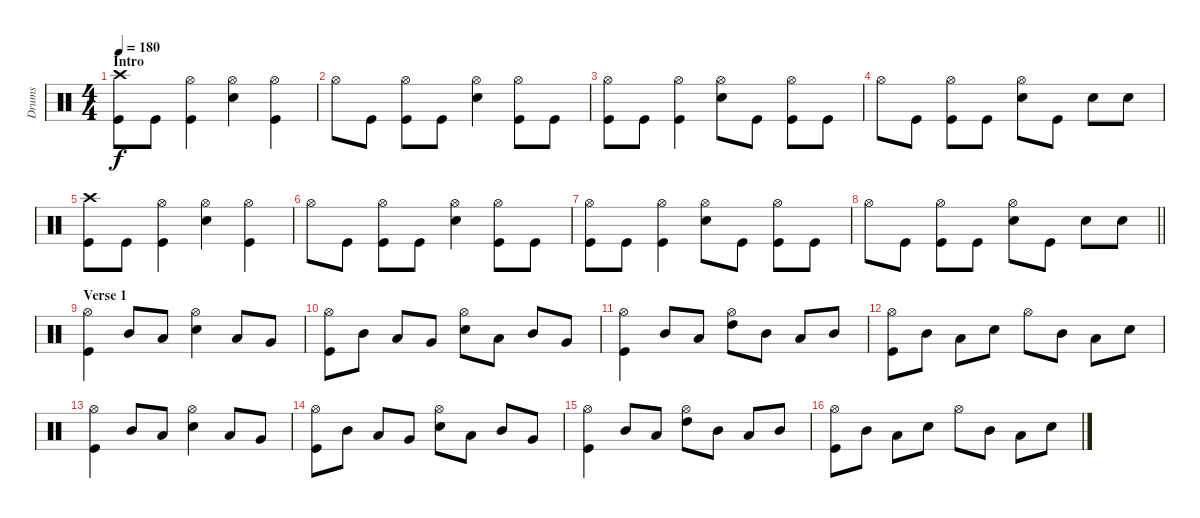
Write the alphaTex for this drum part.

\track ("Drums" "Drums") {instrument percussion}
\staff {score}
\articulation defaults
\ts (4 4)
\section ("" "Intro")
\tempo 180
\clef neutral
\ks c
("Crash high (hit)" "Kick (hit)").8{dy f} "Kick (hit)".8 ("Hi-Hat (open)" "Kick (hit)").4 ("Hi-Hat (open)" "Snare (hit) 2").4 ("Hi-Hat (open)" "Kick (hit)").4 |
"Hi-Hat (open)".8 "Kick (hit)".8 ("Hi-Hat (open)" "Kick (hit)").8 "Kick (hit)".8 ("Hi-Hat (open)" "Snare (hit) 2").4 ("Hi-Hat (open)" "Kick (hit)").8 "Kick (hit)".8 |
("Hi-Hat (open)" "Kick (hit)").8 "Kick (hit)".8 ("Hi-Hat (open)" "Kick (hit)").4 ("Hi-Hat (open)" "Snare (hit) 2").8 "Kick (hit)".8 ("Hi-Hat (open)" "Kick (hit)").8 "Kick (hit)".8 |
"Hi-Hat (open)".8 "Kick (hit)".8 ("Hi-Hat (open)" "Kick (hit)").8 "Kick (hit)".8 ("Snare (hit) 2" "Hi-Hat (open)").8 "Kick (hit)".8 "Snare (hit) 2".8 "Snare (hit) 2".8 |
("Crash high (hit)" "Kick (hit)").8 "Kick (hit)".8 ("Hi-Hat (open)" "Kick (hit)").4 ("Hi-Hat (open)" "Snare (hit) 2").4 ("Hi-Hat (open)" "Kick (hit)").4 |
"Hi-Hat (open)".8 "Kick (hit)".8 ("Hi-Hat (open)" "Kick (hit)").8 "Kick (hit)".8 ("Hi-Hat (open)" "Snare (hit) 2").4 ("Hi-Hat (open)" "Kick (hit)").8 "Kick (hit)".8 |
("Hi-Hat (open)" "Kick (hit)").8 "Kick (hit)".8 ("Hi-Hat (open)" "Kick (hit)").4 ("Hi-Hat (open)" "Snare (hit) 2").8 "Kick (hit)".8 ("Hi-Hat (open)" "Kick (hit)").8 "Kick (hit)".8 |
\barLineRight lightlight "Hi-Hat (open)".8 "Kick (hit)".8
("Hi-Hat (open)" "Kick (hit)").8 "Kick (hit)".8 ("Snare (hit) 2" "Hi-Hat (open)").8 "Kick (hit)".8 "Snare (hit) 2".8 "Snare (hit) 2".8 |
\section ("" "Verse 1")
("Hi-Hat (open)" "Kick (hit)").4 "Mid Tom (hit)".8 "Low Tom (hit)".8 ("Hi-Hat (open)" "Snare (hit) 2").4 "Low Tom (hit)".8 "Very Low Tom (hit)".8 |
("Hi-Hat (open)" "Kick (hit)").8 "Mid Tom (hit)".8 "Low Tom (hit)".8 "Very Low Tom (hit)".8 ("Hi-Hat (open)" "Snare (hit) 2").8 "Low Tom (hit)".8 "Mid Tom (hit)".8 "Very Low Tom (hit)".8 |
("Hi-Hat (open)" "Kick (hit)").4 "Mid Tom (hit)".8 "Low Tom (hit)".8 ("Hi-Hat (open)" "High Tom (hit)").8 "Mid Tom (hit)".8 "Low Tom (hit)".8 "Mid Tom (hit)".8 |
("Hi-Hat (open)" "Kick (hit)").8 "Mid Tom (hit)".8 "Low Tom (hit)".8 "Snare (hit) 2".8 "Hi-Hat (open)".8 "Mid Tom (hit)".8 "Low Tom (hit)".8 "Snare (hit) 2".8 |
("Hi-Hat (open)" "Kick (hit)").4 "Mid Tom (hit)".8 "Low Tom (hit)".8 ("Hi-Hat (open)" "Snare (hit) 2").4 "Low Tom (hit)".8 "Very Low Tom (hit)".8 |
("Hi-Hat (open)" "Kick (hit)").8 "Mid Tom (hit)".8 "Low Tom (hit)".8 "Very Low Tom (hit)".8 ("Hi-Hat (open)" "Snare (hit) 2").8 "Low Tom (hit)".8 "Mid Tom (hit)".8 "Very Low Tom (hit)".8 |
("Hi-Hat (open)" "Kick (hit)").4 "Mid Tom (hit)".8 "Low Tom (hit)".8 ("Hi-Hat (open)" "High Tom (hit)").8 "Mid Tom (hit)".8 "Low Tom (hit)".8 "Mid Tom (hit)".8 |
("Hi-Hat (open)" "Kick (hit)").8 "Mid Tom (hit)".8 "Low Tom (hit)".8 "Snare (hit) 2".8 "Hi-Hat (open)".8 "Mid Tom (hit)".8 "Low Tom (hit)".8 "Snare (hit) 2".8
